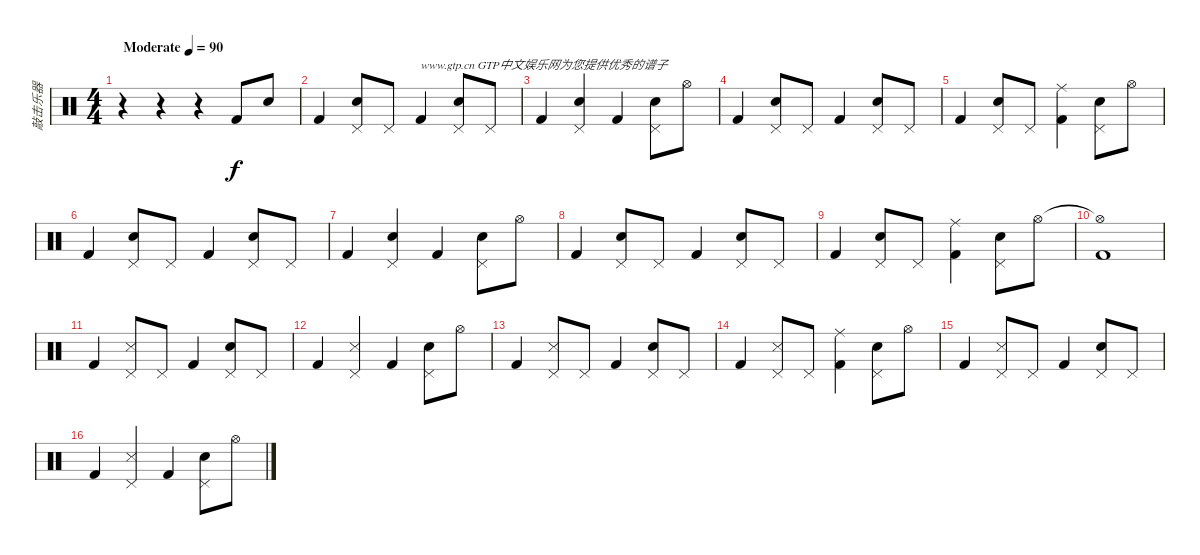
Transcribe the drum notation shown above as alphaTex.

\track ("敲击乐器" "敲击乐器") {instrument percussion}
\staff {score}
\articulation defaults
\ts (4 4)
\tempo (90 "Moderate")
\clef neutral
\ks c
r.4{dy f} r.4 r.4 "Kick (hit) 2".8 "Snare (hit) 2".8 |
"Kick (hit) 2".4 ("Snare (hit) 2" "Pedal Hi-Hat (hit)").8 "Pedal Hi-Hat (hit)".8 "Kick (hit) 2".4{txt "www.gtp.cn GTP中文娱乐网为您提供优秀的谱子"} ("Snare (hit) 2" "Pedal Hi-Hat (hit)").8 "Pedal Hi-Hat (hit)".8 |
"Kick (hit) 2".4 ("Snare (hit) 2" "Pedal Hi-Hat (hit)").4 "Kick (hit) 2".4 ("Snare (hit) 2" "Pedal Hi-Hat (hit)").8 "Hi-Hat (open)".8 |
"Kick (hit) 2".4 ("Snare (hit) 2" "Pedal Hi-Hat (hit)").8 "Pedal Hi-Hat (hit)".8 "Kick (hit) 2".4 ("Snare (hit) 2" "Pedal Hi-Hat (hit)").8 "Pedal Hi-Hat (hit)".8 |
"Kick (hit) 2".4 ("Snare (hit) 2" "Pedal Hi-Hat (hit)").8 "Pedal Hi-Hat (hit)".8 ("Ride (middle)" "Kick (hit) 2").4 ("Snare (hit) 2" "Pedal Hi-Hat (hit)").8 "Hi-Hat (open)".8 |
"Kick (hit) 2".4 ("Snare (hit) 2" "Pedal Hi-Hat (hit)").8 "Pedal Hi-Hat (hit)".8 "Kick (hit) 2".4 ("Snare (hit) 2" "Pedal Hi-Hat (hit)").8 "Pedal Hi-Hat (hit)".8 |
"Kick (hit) 2".4 ("Snare (hit) 2" "Pedal Hi-Hat (hit)").4 "Kick (hit) 2".4 ("Snare (hit) 2" "Pedal Hi-Hat (hit)").8 "Hi-Hat (open)".8 |
"Kick (hit) 2".4 ("Snare (hit) 2" "Pedal Hi-Hat (hit)").8 "Pedal Hi-Hat (hit)".8 "Kick (hit) 2".4 ("Snare (hit) 2" "Pedal Hi-Hat (hit)").8 "Pedal Hi-Hat (hit)".8 |
"Kick (hit) 2".4 ("Snare (hit) 2" "Pedal Hi-Hat (hit)").8 "Pedal Hi-Hat (hit)".8 ("Ride (middle)" "Kick (hit) 2").4 ("Snare (hit) 2" "Pedal Hi-Hat (hit)").8 "Hi-Hat (open)".8 |
("Hi-Hat (open)"{t} "Kick (hit) 2").1 |
"Kick (hit) 2".4 ("Metronome (hit)" "Pedal Hi-Hat (hit)").8 "Pedal Hi-Hat (hit)".8 "Kick (hit) 2".4 ("Snare (hit) 2" "Pedal Hi-Hat (hit)").8 "Pedal Hi-Hat (hit)".8 |
"Kick (hit) 2".4 ("Metronome (hit)" "Pedal Hi-Hat (hit)").4 "Kick (hit) 2".4 ("Snare (hit) 2" "Pedal Hi-Hat (hit)").8 "Hi-Hat (open)".8 |
"Kick (hit) 2".4 ("Metronome (hit)" "Pedal Hi-Hat (hit)").8 "Pedal Hi-Hat (hit)".8 "Kick (hit) 2".4 ("Snare (hit) 2" "Pedal Hi-Hat (hit)").8 "Pedal Hi-Hat (hit)".8 |
"Kick (hit) 2".4 ("Metronome (hit)" "Pedal Hi-Hat (hit)").8 "Pedal Hi-Hat (hit)".8 ("Ride (middle)" "Kick (hit) 2").4 ("Snare (hit) 2" "Pedal Hi-Hat (hit)").8 "Hi-Hat (open)".8 |
"Kick (hit) 2".4 ("Metronome (hit)" "Pedal Hi-Hat (hit)").8 "Pedal Hi-Hat (hit)".8 "Kick (hit) 2".4 ("Snare (hit) 2" "Pedal Hi-Hat (hit)").8 "Pedal Hi-Hat (hit)".8 |
"Kick (hit) 2".4 ("Metronome (hit)" "Pedal Hi-Hat (hit)").4 "Kick (hit) 2".4 ("Snare (hit) 2" "Pedal Hi-Hat (hit)").8 "Hi-Hat (open)".8
